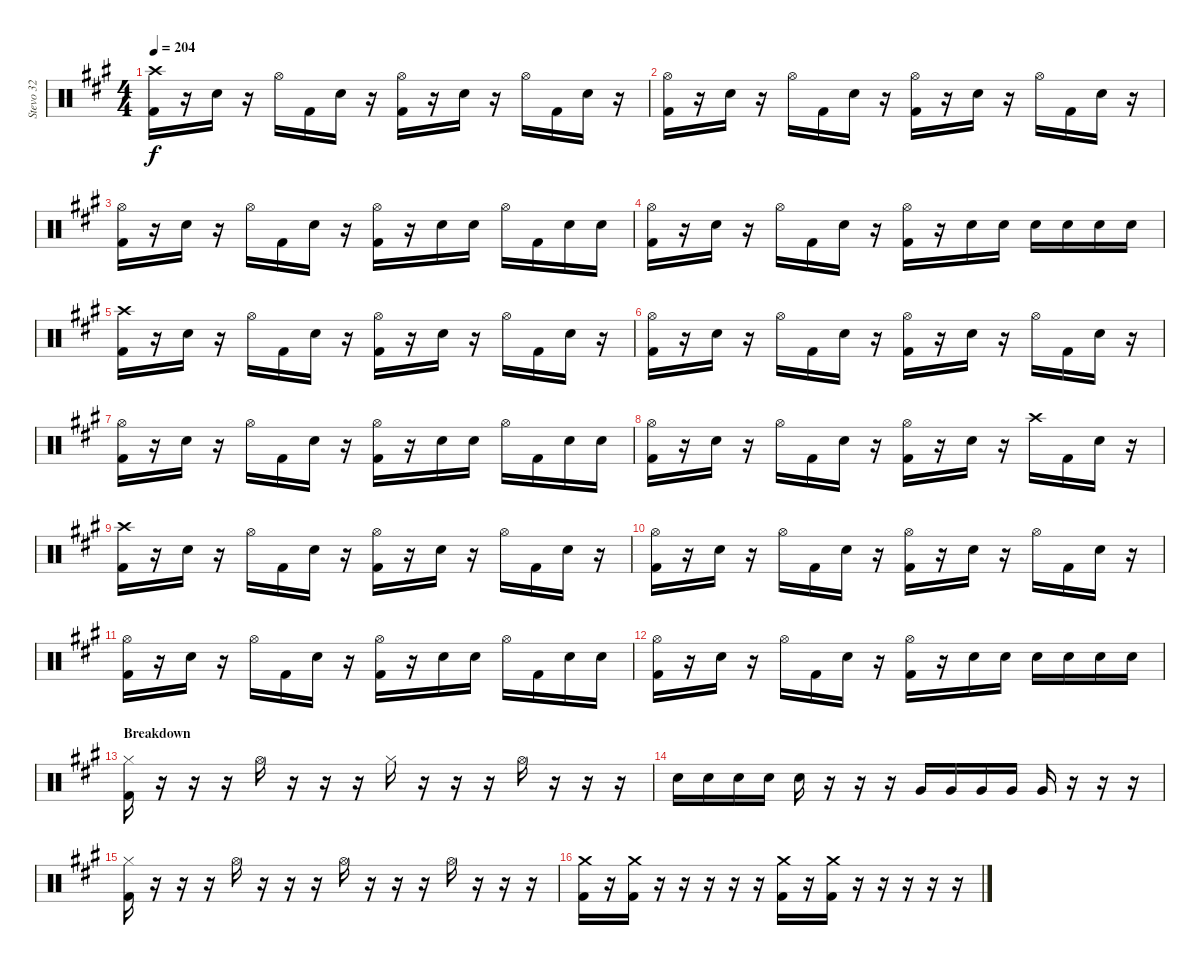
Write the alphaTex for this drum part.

\track ("Stevo 32" "Stevo 32") {instrument percussion}
\staff {score}
\articulation defaults
\ts (4 4)
\tempo 204
\clef neutral
\ks a
("Crash high (hit)" "Kick (hit) 2").16{dy f} r.16 "Snare (hit) 2".16 r.16 "Hi-Hat (open)".16 "Kick (hit) 2".16 "Snare (hit) 2".16 r.16 ("Hi-Hat (open)" "Kick (hit) 2").16 r.16 "Snare (hit) 2".16 r.16 "Hi-Hat (open)".16 "Kick (hit) 2".16 "Snare (hit) 2".16 r.16 |
("Hi-Hat (open)" "Kick (hit) 2").16 r.16 "Snare (hit) 2".16 r.16 "Hi-Hat (open)".16 "Kick (hit) 2".16 "Snare (hit) 2".16 r.16 ("Hi-Hat (open)" "Kick (hit) 2").16 r.16 "Snare (hit) 2".16 r.16 "Hi-Hat (open)".16 "Kick (hit) 2".16 "Snare (hit) 2".16 r.16 |
("Hi-Hat (open)" "Kick (hit) 2").16 r.16 "Snare (hit) 2".16 r.16 "Hi-Hat (open)".16 "Kick (hit) 2".16 "Snare (hit) 2".16 r.16 ("Hi-Hat (open)" "Kick (hit) 2").16 r.16 "Snare (hit) 2".16 "Snare (hit) 2".16 "Hi-Hat (open)".16 "Kick (hit) 2".16 "Snare (hit) 2".16 "Snare (hit) 2".16 |
("Hi-Hat (open)" "Kick (hit) 2").16 r.16 "Snare (hit) 2".16 r.16 "Hi-Hat (open)".16 "Kick (hit) 2".16 "Snare (hit) 2".16 r.16 ("Hi-Hat (open)" "Kick (hit) 2").16 r.16 "Snare (hit) 2".16 "Snare (hit) 2".16 "Snare (hit) 2".16 "Snare (hit) 2".16 "Snare (hit) 2".16 "Snare (hit) 2".16 |
("Crash high (hit)" "Kick (hit) 2").16 r.16 "Snare (hit) 2".16 r.16 "Hi-Hat (open)".16 "Kick (hit) 2".16 "Snare (hit) 2".16 r.16 ("Hi-Hat (open)" "Kick (hit) 2").16 r.16 "Snare (hit) 2".16 r.16 "Hi-Hat (open)".16 "Kick (hit) 2".16 "Snare (hit) 2".16 r.16 |
("Hi-Hat (open)" "Kick (hit) 2").16 r.16 "Snare (hit) 2".16 r.16 "Hi-Hat (open)".16 "Kick (hit) 2".16 "Snare (hit) 2".16 r.16 ("Hi-Hat (open)" "Kick (hit) 2").16 r.16 "Snare (hit) 2".16 r.16 "Hi-Hat (open)".16 "Kick (hit) 2".16 "Snare (hit) 2".16 r.16 |
("Hi-Hat (open)" "Kick (hit) 2").16 r.16 "Snare (hit) 2".16 r.16 "Hi-Hat (open)".16 "Kick (hit) 2".16 "Snare (hit) 2".16 r.16 ("Hi-Hat (open)" "Kick (hit) 2").16 r.16 "Snare (hit) 2".16 "Snare (hit) 2".16 "Hi-Hat (open)".16 "Kick (hit) 2".16 "Snare (hit) 2".16 "Snare (hit) 2".16 |
("Hi-Hat (open)" "Kick (hit) 2").16 r.16 "Snare (hit) 2".16 r.16 "Hi-Hat (open)".16 "Kick (hit) 2".16 "Snare (hit) 2".16 r.16 ("Hi-Hat (open)" "Kick (hit) 2").16 r.16 "Snare (hit) 2".16 r.16 "Crash high (hit)".16 "Kick (hit) 2".16 "Snare (hit) 2".16 r.16 |
("Crash high (hit)" "Kick (hit) 2").16 r.16 "Snare (hit) 2".16 r.16 "Hi-Hat (open)".16 "Kick (hit) 2".16 "Snare (hit) 2".16 r.16 ("Hi-Hat (open)" "Kick (hit) 2").16 r.16 "Snare (hit) 2".16 r.16 "Hi-Hat (open)".16 "Kick (hit) 2".16 "Snare (hit) 2".16 r.16 |
("Hi-Hat (open)" "Kick (hit) 2").16 r.16 "Snare (hit) 2".16 r.16 "Hi-Hat (open)".16 "Kick (hit) 2".16 "Snare (hit) 2".16 r.16 ("Hi-Hat (open)" "Kick (hit) 2").16 r.16 "Snare (hit) 2".16 r.16 "Hi-Hat (open)".16 "Kick (hit) 2".16 "Snare (hit) 2".16 r.16 |
("Hi-Hat (open)" "Kick (hit) 2").16 r.16 "Snare (hit) 2".16 r.16 "Hi-Hat (open)".16 "Kick (hit) 2".16 "Snare (hit) 2".16 r.16 ("Hi-Hat (open)" "Kick (hit) 2").16 r.16 "Snare (hit) 2".16 "Snare (hit) 2".16 "Hi-Hat (open)".16 "Kick (hit) 2".16 "Snare (hit) 2".16 "Snare (hit) 2".16 |
("Hi-Hat (open)" "Kick (hit) 2").16 r.16 "Snare (hit) 2".16 r.16 "Hi-Hat (open)".16 "Kick (hit) 2".16 "Snare (hit) 2".16 r.16 ("Hi-Hat (open)" "Kick (hit) 2").16 r.16 "Snare (hit) 2".16 "Snare (hit) 2".16 "Snare (hit) 2".16 "Snare (hit) 2".16 "Snare (hit) 2".16 "Snare (hit) 2".16 |
\section ("" "Breakdown")
("Hi-Hat (closed)" "Kick (hit) 2").16 r.16 r.16 r.16 "Hi-Hat (open)".16 r.16 r.16 r.16 "Hi-Hat (closed)".16 r.16 r.16 r.16 "Hi-Hat (open)".16 r.16 r.16 r.16 |
"Snare (hit) 2".16 "Snare (hit) 2".16 "Snare (hit) 2".16 "Snare (hit) 2".16 "Snare (hit) 2".16 r.16 r.16 r.16 "Very Low Tom (hit)".16 "Very Low Tom (hit)".16 "Very Low Tom (hit)".16 "Very Low Tom (hit)".16 "Very Low Tom (hit)".16 r.16 r.16 r.16 |
("Hi-Hat (closed)" "Kick (hit) 2").16 r.16 r.16 r.16 "Hi-Hat (open)".16 r.16 r.16 r.16 "Hi-Hat (open)".16 r.16 r.16 r.16 "Hi-Hat (open)".16 r.16 r.16 r.16 |
("Crash medium (hit)" "Kick (hit) 2").16 r.16 ("Crash medium (hit)" "Kick (hit) 2").16 r.16 r.16 r.16 r.16 r.16 ("Crash medium (hit)" "Kick (hit) 2").16 r.16 ("Crash medium (hit)" "Kick (hit) 2").16 r.16 r.16 r.16 r.16 r.16
